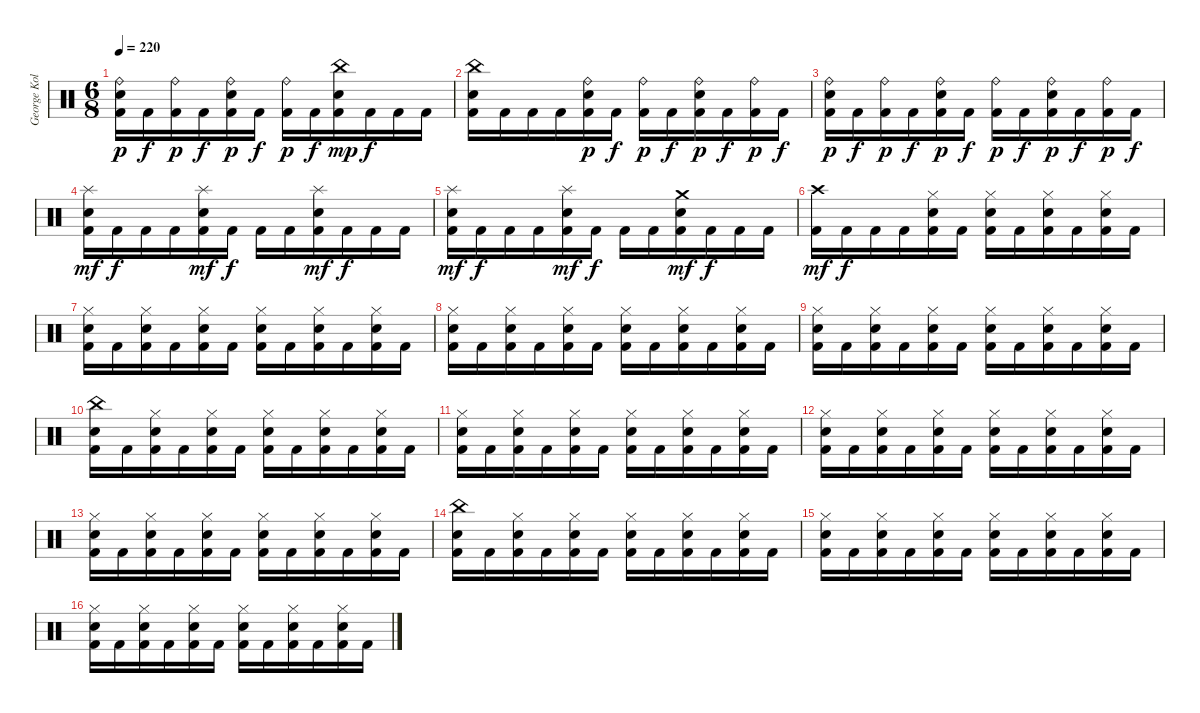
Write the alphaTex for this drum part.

\track ("George Kollias" "George Kol") {instrument percussion}
\staff {score}
\articulation defaults
\ts (6 8)
\tempo 220
\clef neutral
\ks c
("Ride (bell)" "Electric Snare (hit)" "Kick (hit) 2").16{dy p} "Kick (hit) 2".16{dy f} ("Ride (bell)" "Kick (hit) 2").16{dy p} "Kick (hit) 2".16{dy f} ("Ride (bell)" "Electric Snare (hit)" "Kick (hit) 2").16{dy p} "Kick (hit) 2".16{dy f} ("Ride (bell)" "Kick (hit) 2").16{dy p} "Kick (hit) 2".16{dy f} ("China (hit)" "Electric Snare (hit)" "Kick (hit) 2").16{dy mp} "Kick (hit) 2".16{dy f} "Kick (hit) 2".16 "Kick (hit) 2".16 |
("China (hit)" "Electric Snare (hit)" "Kick (hit) 2").16 "Kick (hit) 2".16 "Kick (hit) 2".16 "Kick (hit) 2".16 ("Ride (bell)" "Electric Snare (hit)" "Kick (hit) 2").16{dy p} "Kick (hit) 2".16{dy f} ("Ride (bell)" "Kick (hit) 2").16{dy p} "Kick (hit) 2".16{dy f} ("Ride (bell)" "Electric Snare (hit)" "Kick (hit) 2").16{dy p} "Kick (hit) 2".16{dy f} ("Ride (bell)" "Kick (hit) 2").16{dy p} "Kick (hit) 2".16{dy f} |
("Ride (bell)" "Electric Snare (hit)" "Kick (hit) 2").16{dy p} "Kick (hit) 2".16{dy f} ("Ride (bell)" "Kick (hit) 2").16{dy p} "Kick (hit) 2".16{dy f} ("Ride (bell)" "Electric Snare (hit)" "Kick (hit) 2").16{dy p} "Kick (hit) 2".16{dy f} ("Ride (bell)" "Kick (hit) 2").16{dy p} "Kick (hit) 2".16{dy f} ("Ride (bell)" "Electric Snare (hit)" "Kick (hit) 2").16{dy p} "Kick (hit) 2".16{dy f} ("Ride (bell)" "Kick (hit) 2").16{dy p} "Kick (hit) 2".16{dy f} |
("Splash (hit)" "Electric Snare (hit)" "Kick (hit) 2").16{dy mf} "Kick (hit) 2".16{dy f} "Kick (hit) 2".16 "Kick (hit) 2".16 ("Splash (hit)" "Electric Snare (hit)" "Kick (hit) 2").16{dy mf} "Kick (hit) 2".16{dy f} "Kick (hit) 2".16 "Kick (hit) 2".16 ("Splash (hit)" "Electric Snare (hit)" "Kick (hit) 2").16{dy mf} "Kick (hit) 2".16{dy f} "Kick (hit) 2".16 "Kick (hit) 2".16 |
("Splash (hit)" "Electric Snare (hit)" "Kick (hit) 2").16{dy mf} "Kick (hit) 2".16{dy f} "Kick (hit) 2".16 "Kick (hit) 2".16 ("Splash (hit)" "Electric Snare (hit)" "Kick (hit) 2").16{dy mf} "Kick (hit) 2".16{dy f} "Kick (hit) 2".16 "Kick (hit) 2".16 ("Crash medium (hit)" "Electric Snare (hit)" "Kick (hit) 2").16{dy mf} "Kick (hit) 2".16{dy f} "Kick (hit) 2".16 "Kick (hit) 2".16 |
("Crash high (hit)" "Kick (hit) 2").16{dy mf} "Kick (hit) 2".16{dy f} "Kick (hit) 2".16 "Kick (hit) 2".16 ("Hi-Hat (closed)" "Electric Snare (hit)" "Kick (hit) 2").16 "Kick (hit) 2".16 ("Hi-Hat (closed)" "Electric Snare (hit)" "Kick (hit) 2").16 "Kick (hit) 2".16 ("Hi-Hat (closed)" "Electric Snare (hit)" "Kick (hit) 2").16 "Kick (hit) 2".16 ("Hi-Hat (closed)" "Electric Snare (hit)" "Kick (hit) 2").16 "Kick (hit) 2".16 |
("Hi-Hat (closed)" "Electric Snare (hit)" "Kick (hit) 2").16 "Kick (hit) 2".16 ("Hi-Hat (closed)" "Electric Snare (hit)" "Kick (hit) 2").16 "Kick (hit) 2".16 ("Hi-Hat (closed)" "Electric Snare (hit)" "Kick (hit) 2").16 "Kick (hit) 2".16 ("Hi-Hat (closed)" "Electric Snare (hit)" "Kick (hit) 2").16 "Kick (hit) 2".16 ("Hi-Hat (closed)" "Electric Snare (hit)" "Kick (hit) 2").16 "Kick (hit) 2".16 ("Hi-Hat (closed)" "Electric Snare (hit)" "Kick (hit) 2").16 "Kick (hit) 2".16 |
("Hi-Hat (closed)" "Electric Snare (hit)" "Kick (hit) 2").16 "Kick (hit) 2".16 ("Hi-Hat (closed)" "Electric Snare (hit)" "Kick (hit) 2").16 "Kick (hit) 2".16 ("Hi-Hat (closed)" "Electric Snare (hit)" "Kick (hit) 2").16 "Kick (hit) 2".16 ("Hi-Hat (closed)" "Electric Snare (hit)" "Kick (hit) 2").16 "Kick (hit) 2".16 ("Hi-Hat (closed)" "Electric Snare (hit)" "Kick (hit) 2").16 "Kick (hit) 2".16 ("Hi-Hat (closed)" "Electric Snare (hit)" "Kick (hit) 2").16 "Kick (hit) 2".16 |
("Hi-Hat (closed)" "Electric Snare (hit)" "Kick (hit) 2").16 "Kick (hit) 2".16 ("Hi-Hat (closed)" "Electric Snare (hit)" "Kick (hit) 2").16 "Kick (hit) 2".16 ("Hi-Hat (closed)" "Electric Snare (hit)" "Kick (hit) 2").16 "Kick (hit) 2".16 ("Hi-Hat (closed)" "Electric Snare (hit)" "Kick (hit) 2").16 "Kick (hit) 2".16 ("Hi-Hat (closed)" "Electric Snare (hit)" "Kick (hit) 2").16 "Kick (hit) 2".16 ("Hi-Hat (closed)" "Electric Snare (hit)" "Kick (hit) 2").16 "Kick (hit) 2".16 |
("China (hit)" "Electric Snare (hit)" "Kick (hit) 2").16 "Kick (hit) 2".16 ("Hi-Hat (closed)" "Electric Snare (hit)" "Kick (hit) 2").16 "Kick (hit) 2".16 ("Hi-Hat (closed)" "Electric Snare (hit)" "Kick (hit) 2").16 "Kick (hit) 2".16 ("Hi-Hat (closed)" "Electric Snare (hit)" "Kick (hit) 2").16 "Kick (hit) 2".16 ("Hi-Hat (closed)" "Electric Snare (hit)" "Kick (hit) 2").16 "Kick (hit) 2".16 ("Hi-Hat (closed)" "Electric Snare (hit)" "Kick (hit) 2").16 "Kick (hit) 2".16 |
("Hi-Hat (closed)" "Electric Snare (hit)" "Kick (hit) 2").16 "Kick (hit) 2".16 ("Hi-Hat (closed)" "Electric Snare (hit)" "Kick (hit) 2").16 "Kick (hit) 2".16 ("Hi-Hat (closed)" "Electric Snare (hit)" "Kick (hit) 2").16 "Kick (hit) 2".16 ("Hi-Hat (closed)" "Electric Snare (hit)" "Kick (hit) 2").16 "Kick (hit) 2".16 ("Hi-Hat (closed)" "Electric Snare (hit)" "Kick (hit) 2").16 "Kick (hit) 2".16 ("Hi-Hat (closed)" "Electric Snare (hit)" "Kick (hit) 2").16 "Kick (hit) 2".16 |
("Hi-Hat (closed)" "Electric Snare (hit)" "Kick (hit) 2").16 "Kick (hit) 2".16 ("Hi-Hat (closed)" "Electric Snare (hit)" "Kick (hit) 2").16 "Kick (hit) 2".16 ("Hi-Hat (closed)" "Electric Snare (hit)" "Kick (hit) 2").16 "Kick (hit) 2".16 ("Hi-Hat (closed)" "Electric Snare (hit)" "Kick (hit) 2").16 "Kick (hit) 2".16 ("Hi-Hat (closed)" "Electric Snare (hit)" "Kick (hit) 2").16 "Kick (hit) 2".16 ("Hi-Hat (closed)" "Electric Snare (hit)" "Kick (hit) 2").16 "Kick (hit) 2".16 |
("Hi-Hat (closed)" "Electric Snare (hit)" "Kick (hit) 2").16 "Kick (hit) 2".16 ("Hi-Hat (closed)" "Electric Snare (hit)" "Kick (hit) 2").16 "Kick (hit) 2".16 ("Hi-Hat (closed)" "Electric Snare (hit)" "Kick (hit) 2").16 "Kick (hit) 2".16 ("Hi-Hat (closed)" "Electric Snare (hit)" "Kick (hit) 2").16 "Kick (hit) 2".16 ("Hi-Hat (closed)" "Electric Snare (hit)" "Kick (hit) 2").16 "Kick (hit) 2".16 ("Hi-Hat (closed)" "Electric Snare (hit)" "Kick (hit) 2").16 "Kick (hit) 2".16 |
("China (hit)" "Electric Snare (hit)" "Kick (hit) 2").16 "Kick (hit) 2".16 ("Hi-Hat (closed)" "Electric Snare (hit)" "Kick (hit) 2").16 "Kick (hit) 2".16 ("Hi-Hat (closed)" "Electric Snare (hit)" "Kick (hit) 2").16 "Kick (hit) 2".16 ("Hi-Hat (closed)" "Electric Snare (hit)" "Kick (hit) 2").16 "Kick (hit) 2".16 ("Hi-Hat (closed)" "Electric Snare (hit)" "Kick (hit) 2").16 "Kick (hit) 2".16 ("Hi-Hat (closed)" "Electric Snare (hit)" "Kick (hit) 2").16 "Kick (hit) 2".16 |
("Hi-Hat (closed)" "Electric Snare (hit)" "Kick (hit) 2").16 "Kick (hit) 2".16 ("Hi-Hat (closed)" "Electric Snare (hit)" "Kick (hit) 2").16 "Kick (hit) 2".16 ("Hi-Hat (closed)" "Electric Snare (hit)" "Kick (hit) 2").16 "Kick (hit) 2".16 ("Hi-Hat (closed)" "Electric Snare (hit)" "Kick (hit) 2").16 "Kick (hit) 2".16 ("Hi-Hat (closed)" "Electric Snare (hit)" "Kick (hit) 2").16 "Kick (hit) 2".16 ("Hi-Hat (closed)" "Electric Snare (hit)" "Kick (hit) 2").16 "Kick (hit) 2".16 |
("Hi-Hat (closed)" "Electric Snare (hit)" "Kick (hit) 2").16 "Kick (hit) 2".16 ("Hi-Hat (closed)" "Electric Snare (hit)" "Kick (hit) 2").16 "Kick (hit) 2".16 ("Hi-Hat (closed)" "Electric Snare (hit)" "Kick (hit) 2").16 "Kick (hit) 2".16 ("Hi-Hat (closed)" "Electric Snare (hit)" "Kick (hit) 2").16 "Kick (hit) 2".16 ("Hi-Hat (closed)" "Electric Snare (hit)" "Kick (hit) 2").16 "Kick (hit) 2".16 ("Hi-Hat (closed)" "Electric Snare (hit)" "Kick (hit) 2").16 "Kick (hit) 2".16
